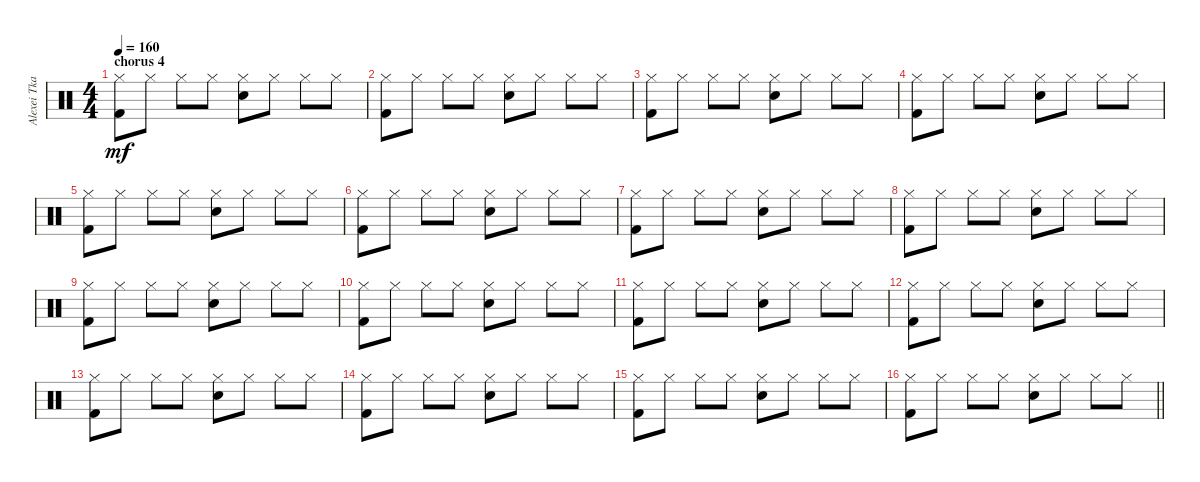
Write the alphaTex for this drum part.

\track ("Alexei Tkachevskiy " "Alexei Tka") {instrument percussion}
\staff {score}
\articulation defaults
\ts (4 4)
\section ("" "chorus 4")
\tempo 160
\clef neutral
\ks c
("Hi-Hat (closed)" "Kick (hit) 2").8{dy mf} "Hi-Hat (closed)".8 "Hi-Hat (closed)".8 "Hi-Hat (closed)".8 ("Hi-Hat (closed)" "Snare (hit) 2").8 "Hi-Hat (closed)".8 "Hi-Hat (closed)".8 "Hi-Hat (closed)".8 |
("Hi-Hat (closed)" "Kick (hit) 2").8 "Hi-Hat (closed)".8 "Hi-Hat (closed)".8 "Hi-Hat (closed)".8 ("Hi-Hat (closed)" "Snare (hit) 2").8 "Hi-Hat (closed)".8 "Hi-Hat (closed)".8 "Hi-Hat (closed)".8 |
("Hi-Hat (closed)" "Kick (hit) 2").8 "Hi-Hat (closed)".8 "Hi-Hat (closed)".8 "Hi-Hat (closed)".8 ("Hi-Hat (closed)" "Snare (hit) 2").8 "Hi-Hat (closed)".8 "Hi-Hat (closed)".8 "Hi-Hat (closed)".8 |
("Hi-Hat (closed)" "Kick (hit) 2").8 "Hi-Hat (closed)".8 "Hi-Hat (closed)".8 "Hi-Hat (closed)".8 ("Hi-Hat (closed)" "Snare (hit) 2").8 "Hi-Hat (closed)".8 "Hi-Hat (closed)".8 "Hi-Hat (closed)".8 |
("Hi-Hat (closed)" "Kick (hit) 2").8 "Hi-Hat (closed)".8 "Hi-Hat (closed)".8 "Hi-Hat (closed)".8 ("Hi-Hat (closed)" "Snare (hit) 2").8 "Hi-Hat (closed)".8 "Hi-Hat (closed)".8 "Hi-Hat (closed)".8 |
("Hi-Hat (closed)" "Kick (hit) 2").8 "Hi-Hat (closed)".8 "Hi-Hat (closed)".8 "Hi-Hat (closed)".8 ("Hi-Hat (closed)" "Snare (hit) 2").8 "Hi-Hat (closed)".8 "Hi-Hat (closed)".8 "Hi-Hat (closed)".8 |
("Hi-Hat (closed)" "Kick (hit) 2").8 "Hi-Hat (closed)".8 "Hi-Hat (closed)".8 "Hi-Hat (closed)".8 ("Hi-Hat (closed)" "Snare (hit) 2").8 "Hi-Hat (closed)".8 "Hi-Hat (closed)".8 "Hi-Hat (closed)".8 |
("Hi-Hat (closed)" "Kick (hit) 2").8 "Hi-Hat (closed)".8 "Hi-Hat (closed)".8 "Hi-Hat (closed)".8 ("Hi-Hat (closed)" "Snare (hit) 2").8 "Hi-Hat (closed)".8 "Hi-Hat (closed)".8 "Hi-Hat (closed)".8 |
("Hi-Hat (closed)" "Kick (hit) 2").8 "Hi-Hat (closed)".8 "Hi-Hat (closed)".8 "Hi-Hat (closed)".8 ("Hi-Hat (closed)" "Snare (hit) 2").8 "Hi-Hat (closed)".8 "Hi-Hat (closed)".8 "Hi-Hat (closed)".8 |
("Hi-Hat (closed)" "Kick (hit) 2").8 "Hi-Hat (closed)".8 "Hi-Hat (closed)".8 "Hi-Hat (closed)".8 ("Hi-Hat (closed)" "Snare (hit) 2").8 "Hi-Hat (closed)".8 "Hi-Hat (closed)".8 "Hi-Hat (closed)".8 |
("Hi-Hat (closed)" "Kick (hit) 2").8 "Hi-Hat (closed)".8 "Hi-Hat (closed)".8 "Hi-Hat (closed)".8 ("Hi-Hat (closed)" "Snare (hit) 2").8 "Hi-Hat (closed)".8 "Hi-Hat (closed)".8 "Hi-Hat (closed)".8 |
("Hi-Hat (closed)" "Kick (hit) 2").8 "Hi-Hat (closed)".8 "Hi-Hat (closed)".8 "Hi-Hat (closed)".8 ("Hi-Hat (closed)" "Snare (hit) 2").8 "Hi-Hat (closed)".8 "Hi-Hat (closed)".8 "Hi-Hat (closed)".8 |
("Hi-Hat (closed)" "Kick (hit) 2").8 "Hi-Hat (closed)".8 "Hi-Hat (closed)".8 "Hi-Hat (closed)".8 ("Hi-Hat (closed)" "Snare (hit) 2").8 "Hi-Hat (closed)".8 "Hi-Hat (closed)".8 "Hi-Hat (closed)".8 |
("Hi-Hat (closed)" "Kick (hit) 2").8 "Hi-Hat (closed)".8 "Hi-Hat (closed)".8 "Hi-Hat (closed)".8 ("Hi-Hat (closed)" "Snare (hit) 2").8 "Hi-Hat (closed)".8 "Hi-Hat (closed)".8 "Hi-Hat (closed)".8 |
("Hi-Hat (closed)" "Kick (hit) 2").8 "Hi-Hat (closed)".8 "Hi-Hat (closed)".8 "Hi-Hat (closed)".8 ("Hi-Hat (closed)" "Snare (hit) 2").8 "Hi-Hat (closed)".8 "Hi-Hat (closed)".8 "Hi-Hat (closed)".8 |
\barLineRight lightlight
("Hi-Hat (closed)" "Kick (hit) 2").8 "Hi-Hat (closed)".8 "Hi-Hat (closed)".8 "Hi-Hat (closed)".8 ("Hi-Hat (closed)" "Snare (hit) 2").8 "Hi-Hat (closed)".8 "Hi-Hat (closed)".8 "Hi-Hat (closed)".8
